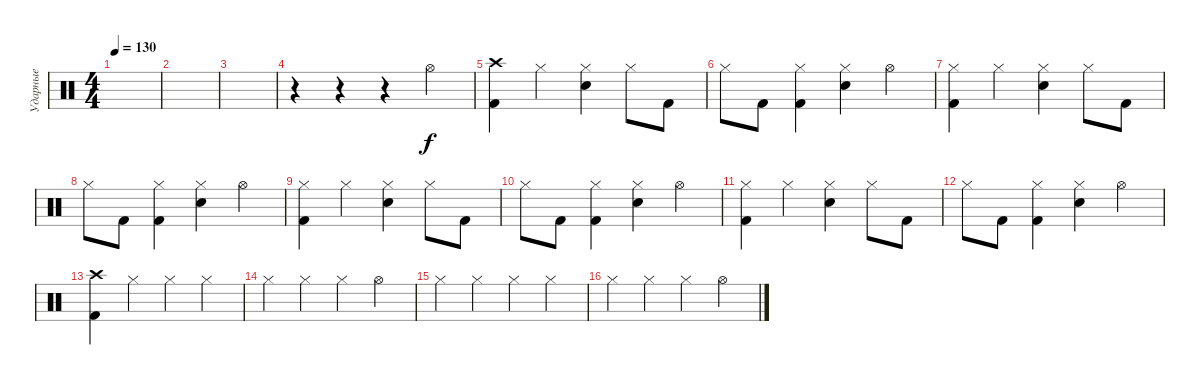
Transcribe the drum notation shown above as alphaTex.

\track ("Ударные" "Ударные") {instrument percussion}
\staff {score}
\articulation defaults
\ts (4 4)
\tempo 130
\clef neutral
\ks c
|
|
|
r.4 r.4 r.4 "Hi-Hat (open)".4 |
("Crash high (hit)" "Kick (hit) 2").4 "Hi-Hat (closed)".4 ("Hi-Hat (closed)" "Snare (hit) 2").4 "Hi-Hat (closed)".8 "Kick (hit) 2".8 |
"Hi-Hat (closed)".8 "Kick (hit) 2".8 ("Hi-Hat (closed)" "Kick (hit) 2").4 ("Hi-Hat (closed)" "Snare (hit) 2").4 "Hi-Hat (open)".4 |
("Hi-Hat (closed)" "Kick (hit) 2").4 "Hi-Hat (closed)".4 ("Hi-Hat (closed)" "Snare (hit) 2").4 "Hi-Hat (closed)".8 "Kick (hit) 2".8 |
"Hi-Hat (closed)".8 "Kick (hit) 2".8 ("Hi-Hat (closed)" "Kick (hit) 2").4 ("Hi-Hat (closed)" "Snare (hit) 2").4 "Hi-Hat (open)".4 |
("Hi-Hat (closed)" "Kick (hit) 2").4 "Hi-Hat (closed)".4 ("Hi-Hat (closed)" "Snare (hit) 2").4 "Hi-Hat (closed)".8 "Kick (hit) 2".8 |
"Hi-Hat (closed)".8 "Kick (hit) 2".8 ("Hi-Hat (closed)" "Kick (hit) 2").4 ("Hi-Hat (closed)" "Snare (hit) 2").4 "Hi-Hat (open)".4 |
("Hi-Hat (closed)" "Kick (hit) 2").4 "Hi-Hat (closed)".4 ("Hi-Hat (closed)" "Snare (hit) 2").4 "Hi-Hat (closed)".8 "Kick (hit) 2".8 |
"Hi-Hat (closed)".8 "Kick (hit) 2".8 ("Hi-Hat (closed)" "Kick (hit) 2").4 ("Hi-Hat (closed)" "Snare (hit) 2").4 "Hi-Hat (open)".4 |
("Crash high (hit)" "Kick (hit) 2").4 "Hi-Hat (closed)".4 "Hi-Hat (closed)".4 "Hi-Hat (closed)".4 |
"Hi-Hat (closed)".4 "Hi-Hat (closed)".4 "Hi-Hat (closed)".4 "Hi-Hat (open)".4 |
"Hi-Hat (closed)".4 "Hi-Hat (closed)".4 "Hi-Hat (closed)".4 "Hi-Hat (closed)".4 |
"Hi-Hat (closed)".4 "Hi-Hat (closed)".4 "Hi-Hat (closed)".4 "Hi-Hat (open)".4
